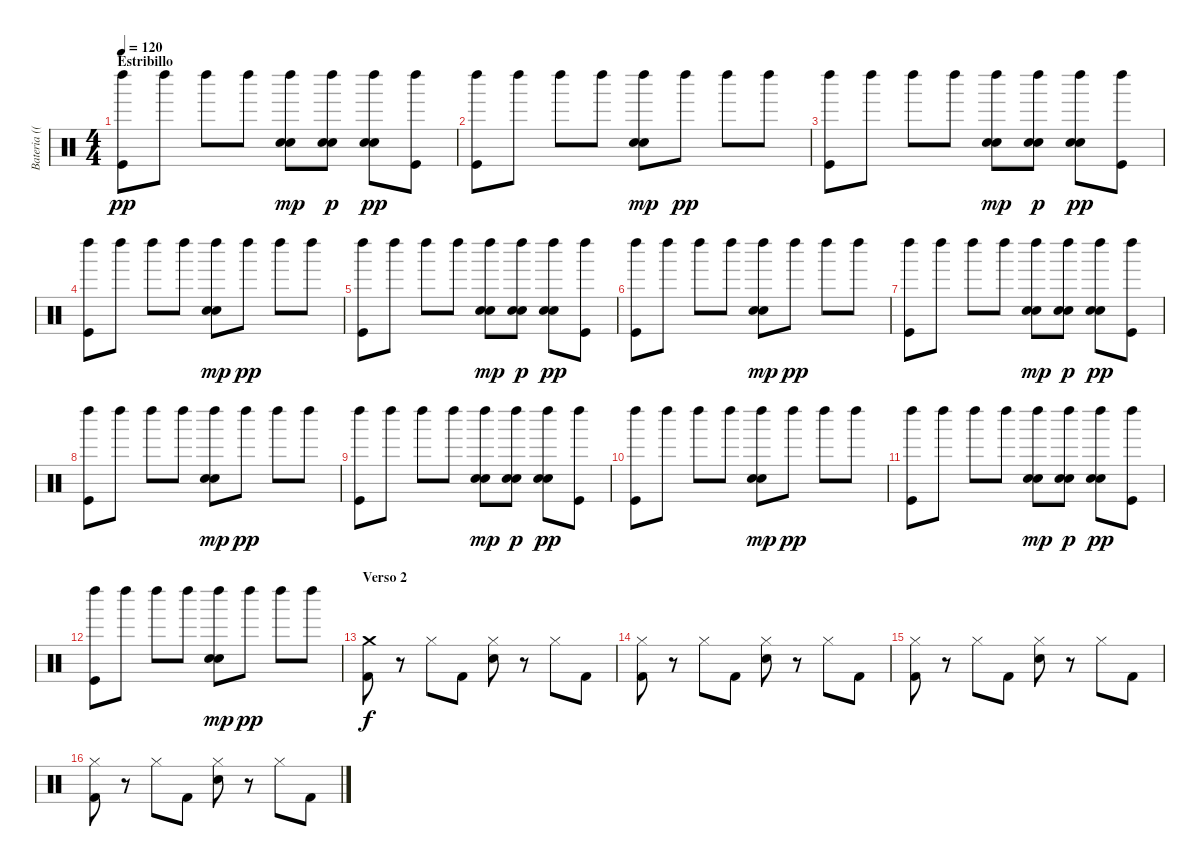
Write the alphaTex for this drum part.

\track ("Bateria ((Matt))" "Bateria ((") {instrument percussion}
\staff {score}
\articulation defaults
\ts (4 4)
\section ("" "Estribillo")
\tempo 120
\clef neutral
\ks c
("Left Maraca (hit)" "Kick (hit)").8{dy pp} "Left Maraca (hit)".8 "Left Maraca (hit)".8 "Left Maraca (hit)".8 ("Left Maraca (hit)" "Hand Clap (hit)" "Electric Snare (hit)").8{dy mp} ("Left Maraca (hit)" "Hand Clap (hit)" "Electric Snare (hit)").8{dy p} ("Left Maraca (hit)" "Hand Clap (hit)" "Electric Snare (hit)").8{dy pp} ("Left Maraca (hit)" "Kick (hit)").8 |
("Left Maraca (hit)" "Kick (hit)").8 "Left Maraca (hit)".8 "Left Maraca (hit)".8 "Left Maraca (hit)".8 ("Left Maraca (hit)" "Hand Clap (hit)" "Electric Snare (hit)").8{dy mp} "Left Maraca (hit)".8{dy pp} "Left Maraca (hit)".8 "Left Maraca (hit)".8 |
("Left Maraca (hit)" "Kick (hit)").8 "Left Maraca (hit)".8 "Left Maraca (hit)".8 "Left Maraca (hit)".8 ("Left Maraca (hit)" "Hand Clap (hit)" "Electric Snare (hit)").8{dy mp} ("Left Maraca (hit)" "Hand Clap (hit)" "Electric Snare (hit)").8{dy p} ("Left Maraca (hit)" "Hand Clap (hit)" "Electric Snare (hit)").8{dy pp} ("Left Maraca (hit)" "Kick (hit)").8 |
("Left Maraca (hit)" "Kick (hit)").8 "Left Maraca (hit)".8 "Left Maraca (hit)".8 "Left Maraca (hit)".8 ("Left Maraca (hit)" "Hand Clap (hit)" "Electric Snare (hit)").8{dy mp} "Left Maraca (hit)".8{dy pp} "Left Maraca (hit)".8 "Left Maraca (hit)".8 |
("Left Maraca (hit)" "Kick (hit)").8 "Left Maraca (hit)".8 "Left Maraca (hit)".8 "Left Maraca (hit)".8 ("Left Maraca (hit)" "Hand Clap (hit)" "Electric Snare (hit)").8{dy mp} ("Left Maraca (hit)" "Hand Clap (hit)" "Electric Snare (hit)").8{dy p} ("Left Maraca (hit)" "Hand Clap (hit)" "Electric Snare (hit)").8{dy pp} ("Left Maraca (hit)" "Kick (hit)").8 |
("Left Maraca (hit)" "Kick (hit)").8 "Left Maraca (hit)".8 "Left Maraca (hit)".8 "Left Maraca (hit)".8 ("Left Maraca (hit)" "Hand Clap (hit)" "Electric Snare (hit)").8{dy mp} "Left Maraca (hit)".8{dy pp} "Left Maraca (hit)".8 "Left Maraca (hit)".8 |
("Left Maraca (hit)" "Kick (hit)").8 "Left Maraca (hit)".8 "Left Maraca (hit)".8 "Left Maraca (hit)".8 ("Left Maraca (hit)" "Hand Clap (hit)" "Electric Snare (hit)").8{dy mp} ("Left Maraca (hit)" "Hand Clap (hit)" "Electric Snare (hit)").8{dy p} ("Left Maraca (hit)" "Hand Clap (hit)" "Electric Snare (hit)").8{dy pp} ("Left Maraca (hit)" "Kick (hit)").8 |
("Left Maraca (hit)" "Kick (hit)").8 "Left Maraca (hit)".8 "Left Maraca (hit)".8 "Left Maraca (hit)".8 ("Left Maraca (hit)" "Hand Clap (hit)" "Electric Snare (hit)").8{dy mp} "Left Maraca (hit)".8{dy pp} "Left Maraca (hit)".8 "Left Maraca (hit)".8 |
("Left Maraca (hit)" "Kick (hit)").8 "Left Maraca (hit)".8 "Left Maraca (hit)".8 "Left Maraca (hit)".8 ("Left Maraca (hit)" "Hand Clap (hit)" "Electric Snare (hit)").8{dy mp} ("Left Maraca (hit)" "Hand Clap (hit)" "Electric Snare (hit)").8{dy p} ("Left Maraca (hit)" "Hand Clap (hit)" "Electric Snare (hit)").8{dy pp} ("Left Maraca (hit)" "Kick (hit)").8 |
("Left Maraca (hit)" "Kick (hit)").8 "Left Maraca (hit)".8 "Left Maraca (hit)".8 "Left Maraca (hit)".8 ("Left Maraca (hit)" "Hand Clap (hit)" "Electric Snare (hit)").8{dy mp} "Left Maraca (hit)".8{dy pp} "Left Maraca (hit)".8 "Left Maraca (hit)".8 |
("Left Maraca (hit)" "Kick (hit)").8 "Left Maraca (hit)".8 "Left Maraca (hit)".8 "Left Maraca (hit)".8 ("Left Maraca (hit)" "Hand Clap (hit)" "Electric Snare (hit)").8{dy mp} ("Left Maraca (hit)" "Hand Clap (hit)" "Electric Snare (hit)").8{dy p} ("Left Maraca (hit)" "Hand Clap (hit)" "Electric Snare (hit)").8{dy pp} ("Left Maraca (hit)" "Kick (hit)").8 |
("Left Maraca (hit)" "Kick (hit)").8 "Left Maraca (hit)".8 "Left Maraca (hit)".8 "Left Maraca (hit)".8 ("Left Maraca (hit)" "Hand Clap (hit)" "Electric Snare (hit)").8{dy mp} "Left Maraca (hit)".8{dy pp} "Left Maraca (hit)".8 "Left Maraca (hit)".8 |
\section ("" "Verso 2")
("Crash medium (hit)" "Kick (hit) 2").8{dy f} r.8 "Hi-Hat (closed)".8 "Kick (hit) 2".8 ("Hi-Hat (closed)" "Electric Snare (hit)").8 r.8 "Hi-Hat (closed)".8 "Kick (hit) 2".8 |
("Hi-Hat (closed)" "Kick (hit) 2").8 r.8 "Hi-Hat (closed)".8 "Kick (hit) 2".8 ("Hi-Hat (closed)" "Electric Snare (hit)").8 r.8 "Hi-Hat (closed)".8 "Kick (hit) 2".8 |
("Hi-Hat (closed)" "Kick (hit) 2").8 r.8 "Hi-Hat (closed)".8 "Kick (hit) 2".8 ("Hi-Hat (closed)" "Electric Snare (hit)").8 r.8 "Hi-Hat (closed)".8 "Kick (hit) 2".8 |
("Hi-Hat (closed)" "Kick (hit) 2").8 r.8 "Hi-Hat (closed)".8 "Kick (hit) 2".8 ("Hi-Hat (closed)" "Electric Snare (hit)").8 r.8 "Hi-Hat (closed)".8 "Kick (hit) 2".8
